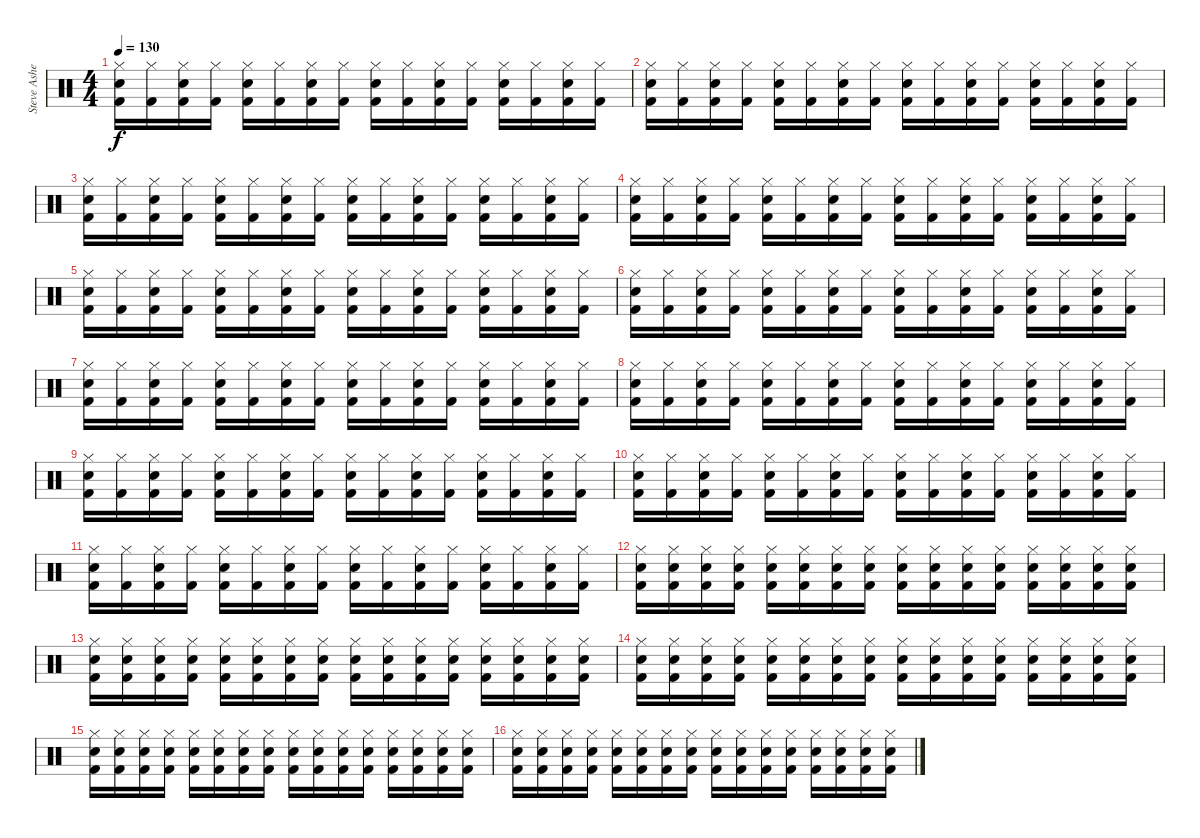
\track ("Steve Asheim" "Steve Ashe") {instrument percussion}
\staff {score}
\articulation defaults
\ts (4 4)
\tempo 130
\clef neutral
\ks c
("Kick (hit) 2" "Electric Snare (hit)" "Hi-Hat (closed)").16{dy f} ("Kick (hit) 2" "Hi-Hat (closed)").16 ("Kick (hit) 2" "Electric Snare (hit)" "Hi-Hat (closed)").16 ("Kick (hit) 2" "Hi-Hat (closed)").16 ("Kick (hit) 2" "Electric Snare (hit)" "Hi-Hat (closed)").16 ("Kick (hit) 2" "Hi-Hat (closed)").16 ("Kick (hit) 2" "Electric Snare (hit)" "Hi-Hat (closed)").16 ("Kick (hit) 2" "Hi-Hat (closed)").16 ("Kick (hit) 2" "Electric Snare (hit)" "Hi-Hat (closed)").16 ("Kick (hit) 2" "Hi-Hat (closed)").16 ("Kick (hit) 2" "Electric Snare (hit)" "Hi-Hat (closed)").16 ("Kick (hit) 2" "Hi-Hat (closed)").16 ("Kick (hit) 2" "Electric Snare (hit)" "Hi-Hat (closed)").16 ("Kick (hit) 2" "Hi-Hat (closed)").16 ("Kick (hit) 2" "Electric Snare (hit)" "Hi-Hat (closed)").16 ("Kick (hit) 2" "Hi-Hat (closed)").16 |
("Kick (hit) 2" "Electric Snare (hit)" "Hi-Hat (closed)").16 ("Kick (hit) 2" "Hi-Hat (closed)").16 ("Kick (hit) 2" "Electric Snare (hit)" "Hi-Hat (closed)").16 ("Kick (hit) 2" "Hi-Hat (closed)").16 ("Kick (hit) 2" "Electric Snare (hit)" "Hi-Hat (closed)").16 ("Kick (hit) 2" "Hi-Hat (closed)").16 ("Kick (hit) 2" "Electric Snare (hit)" "Hi-Hat (closed)").16 ("Kick (hit) 2" "Hi-Hat (closed)").16 ("Kick (hit) 2" "Electric Snare (hit)" "Hi-Hat (closed)").16 ("Kick (hit) 2" "Hi-Hat (closed)").16 ("Kick (hit) 2" "Electric Snare (hit)" "Hi-Hat (closed)").16 ("Kick (hit) 2" "Hi-Hat (closed)").16 ("Kick (hit) 2" "Electric Snare (hit)" "Hi-Hat (closed)").16 ("Kick (hit) 2" "Hi-Hat (closed)").16 ("Kick (hit) 2" "Electric Snare (hit)" "Hi-Hat (closed)").16 ("Kick (hit) 2" "Hi-Hat (closed)").16 |
("Kick (hit) 2" "Electric Snare (hit)" "Hi-Hat (closed)").16 ("Kick (hit) 2" "Hi-Hat (closed)").16 ("Kick (hit) 2" "Electric Snare (hit)" "Hi-Hat (closed)").16 ("Kick (hit) 2" "Hi-Hat (closed)").16 ("Kick (hit) 2" "Electric Snare (hit)" "Hi-Hat (closed)").16 ("Kick (hit) 2" "Hi-Hat (closed)").16 ("Kick (hit) 2" "Electric Snare (hit)" "Hi-Hat (closed)").16 ("Kick (hit) 2" "Hi-Hat (closed)").16 ("Kick (hit) 2" "Electric Snare (hit)" "Hi-Hat (closed)").16 ("Kick (hit) 2" "Hi-Hat (closed)").16 ("Kick (hit) 2" "Electric Snare (hit)" "Hi-Hat (closed)").16 ("Kick (hit) 2" "Hi-Hat (closed)").16 ("Kick (hit) 2" "Electric Snare (hit)" "Hi-Hat (closed)").16 ("Kick (hit) 2" "Hi-Hat (closed)").16 ("Kick (hit) 2" "Electric Snare (hit)" "Hi-Hat (closed)").16 ("Kick (hit) 2" "Hi-Hat (closed)").16 |
("Kick (hit) 2" "Electric Snare (hit)" "Hi-Hat (closed)").16 ("Kick (hit) 2" "Hi-Hat (closed)").16 ("Kick (hit) 2" "Electric Snare (hit)" "Hi-Hat (closed)").16 ("Kick (hit) 2" "Hi-Hat (closed)").16 ("Kick (hit) 2" "Electric Snare (hit)" "Hi-Hat (closed)").16 ("Kick (hit) 2" "Hi-Hat (closed)").16 ("Kick (hit) 2" "Electric Snare (hit)" "Hi-Hat (closed)").16 ("Kick (hit) 2" "Hi-Hat (closed)").16 ("Kick (hit) 2" "Electric Snare (hit)" "Hi-Hat (closed)").16 ("Kick (hit) 2" "Hi-Hat (closed)").16 ("Kick (hit) 2" "Electric Snare (hit)" "Hi-Hat (closed)").16 ("Kick (hit) 2" "Hi-Hat (closed)").16 ("Kick (hit) 2" "Electric Snare (hit)" "Hi-Hat (closed)").16 ("Kick (hit) 2" "Hi-Hat (closed)").16 ("Kick (hit) 2" "Electric Snare (hit)" "Hi-Hat (closed)").16 ("Kick (hit) 2" "Hi-Hat (closed)").16 |
("Kick (hit) 2" "Electric Snare (hit)" "Hi-Hat (closed)").16 ("Kick (hit) 2" "Hi-Hat (closed)").16 ("Kick (hit) 2" "Electric Snare (hit)" "Hi-Hat (closed)").16 ("Kick (hit) 2" "Hi-Hat (closed)").16 ("Kick (hit) 2" "Electric Snare (hit)" "Hi-Hat (closed)").16 ("Kick (hit) 2" "Hi-Hat (closed)").16 ("Kick (hit) 2" "Electric Snare (hit)" "Hi-Hat (closed)").16 ("Kick (hit) 2" "Hi-Hat (closed)").16 ("Kick (hit) 2" "Electric Snare (hit)" "Hi-Hat (closed)").16 ("Kick (hit) 2" "Hi-Hat (closed)").16 ("Kick (hit) 2" "Electric Snare (hit)" "Hi-Hat (closed)").16 ("Kick (hit) 2" "Hi-Hat (closed)").16 ("Kick (hit) 2" "Electric Snare (hit)" "Hi-Hat (closed)").16 ("Kick (hit) 2" "Hi-Hat (closed)").16 ("Kick (hit) 2" "Electric Snare (hit)" "Hi-Hat (closed)").16 ("Kick (hit) 2" "Hi-Hat (closed)").16 |
("Kick (hit) 2" "Electric Snare (hit)" "Hi-Hat (closed)").16 ("Kick (hit) 2" "Hi-Hat (closed)").16 ("Kick (hit) 2" "Electric Snare (hit)" "Hi-Hat (closed)").16 ("Kick (hit) 2" "Hi-Hat (closed)").16 ("Kick (hit) 2" "Electric Snare (hit)" "Hi-Hat (closed)").16 ("Kick (hit) 2" "Hi-Hat (closed)").16 ("Kick (hit) 2" "Electric Snare (hit)" "Hi-Hat (closed)").16 ("Kick (hit) 2" "Hi-Hat (closed)").16 ("Kick (hit) 2" "Electric Snare (hit)" "Hi-Hat (closed)").16 ("Kick (hit) 2" "Hi-Hat (closed)").16 ("Kick (hit) 2" "Electric Snare (hit)" "Hi-Hat (closed)").16 ("Kick (hit) 2" "Hi-Hat (closed)").16 ("Kick (hit) 2" "Electric Snare (hit)" "Hi-Hat (closed)").16 ("Kick (hit) 2" "Hi-Hat (closed)").16 ("Kick (hit) 2" "Electric Snare (hit)" "Hi-Hat (closed)").16 ("Kick (hit) 2" "Hi-Hat (closed)").16 |
("Kick (hit) 2" "Electric Snare (hit)" "Hi-Hat (closed)").16 ("Kick (hit) 2" "Hi-Hat (closed)").16 ("Kick (hit) 2" "Electric Snare (hit)" "Hi-Hat (closed)").16 ("Kick (hit) 2" "Hi-Hat (closed)").16 ("Kick (hit) 2" "Electric Snare (hit)" "Hi-Hat (closed)").16 ("Kick (hit) 2" "Hi-Hat (closed)").16 ("Kick (hit) 2" "Electric Snare (hit)" "Hi-Hat (closed)").16 ("Kick (hit) 2" "Hi-Hat (closed)").16 ("Kick (hit) 2" "Electric Snare (hit)" "Hi-Hat (closed)").16 ("Kick (hit) 2" "Hi-Hat (closed)").16 ("Kick (hit) 2" "Electric Snare (hit)" "Hi-Hat (closed)").16 ("Kick (hit) 2" "Hi-Hat (closed)").16 ("Kick (hit) 2" "Electric Snare (hit)" "Hi-Hat (closed)").16 ("Kick (hit) 2" "Hi-Hat (closed)").16 ("Kick (hit) 2" "Electric Snare (hit)" "Hi-Hat (closed)").16 ("Kick (hit) 2" "Hi-Hat (closed)").16 |
("Kick (hit) 2" "Electric Snare (hit)" "Hi-Hat (closed)").16 ("Kick (hit) 2" "Hi-Hat (closed)").16 ("Kick (hit) 2" "Electric Snare (hit)" "Hi-Hat (closed)").16 ("Kick (hit) 2" "Hi-Hat (closed)").16 ("Kick (hit) 2" "Electric Snare (hit)" "Hi-Hat (closed)").16 ("Kick (hit) 2" "Hi-Hat (closed)").16 ("Kick (hit) 2" "Electric Snare (hit)" "Hi-Hat (closed)").16 ("Kick (hit) 2" "Hi-Hat (closed)").16 ("Kick (hit) 2" "Electric Snare (hit)" "Hi-Hat (closed)").16 ("Kick (hit) 2" "Hi-Hat (closed)").16 ("Kick (hit) 2" "Electric Snare (hit)" "Hi-Hat (closed)").16 ("Kick (hit) 2" "Hi-Hat (closed)").16 ("Kick (hit) 2" "Electric Snare (hit)" "Hi-Hat (closed)").16 ("Kick (hit) 2" "Hi-Hat (closed)").16 ("Kick (hit) 2" "Electric Snare (hit)" "Hi-Hat (closed)").16 ("Kick (hit) 2" "Hi-Hat (closed)").16 |
("Kick (hit) 2" "Electric Snare (hit)" "Hi-Hat (closed)").16 ("Kick (hit) 2" "Hi-Hat (closed)").16 ("Kick (hit) 2" "Electric Snare (hit)" "Hi-Hat (closed)").16 ("Kick (hit) 2" "Hi-Hat (closed)").16 ("Kick (hit) 2" "Electric Snare (hit)" "Hi-Hat (closed)").16 ("Kick (hit) 2" "Hi-Hat (closed)").16 ("Kick (hit) 2" "Electric Snare (hit)" "Hi-Hat (closed)").16 ("Kick (hit) 2" "Hi-Hat (closed)").16 ("Kick (hit) 2" "Electric Snare (hit)" "Hi-Hat (closed)").16 ("Kick (hit) 2" "Hi-Hat (closed)").16 ("Kick (hit) 2" "Electric Snare (hit)" "Hi-Hat (closed)").16 ("Kick (hit) 2" "Hi-Hat (closed)").16 ("Kick (hit) 2" "Electric Snare (hit)" "Hi-Hat (closed)").16 ("Kick (hit) 2" "Hi-Hat (closed)").16 ("Kick (hit) 2" "Electric Snare (hit)" "Hi-Hat (closed)").16 ("Kick (hit) 2" "Hi-Hat (closed)").16 |
("Kick (hit) 2" "Electric Snare (hit)" "Hi-Hat (closed)").16 ("Kick (hit) 2" "Hi-Hat (closed)").16 ("Kick (hit) 2" "Electric Snare (hit)" "Hi-Hat (closed)").16 ("Kick (hit) 2" "Hi-Hat (closed)").16 ("Kick (hit) 2" "Electric Snare (hit)" "Hi-Hat (closed)").16 ("Kick (hit) 2" "Hi-Hat (closed)").16 ("Kick (hit) 2" "Electric Snare (hit)" "Hi-Hat (closed)").16 ("Kick (hit) 2" "Hi-Hat (closed)").16 ("Kick (hit) 2" "Electric Snare (hit)" "Hi-Hat (closed)").16 ("Kick (hit) 2" "Hi-Hat (closed)").16 ("Kick (hit) 2" "Electric Snare (hit)" "Hi-Hat (closed)").16 ("Kick (hit) 2" "Hi-Hat (closed)").16 ("Kick (hit) 2" "Electric Snare (hit)" "Hi-Hat (closed)").16 ("Kick (hit) 2" "Hi-Hat (closed)").16 ("Kick (hit) 2" "Electric Snare (hit)" "Hi-Hat (closed)").16 ("Kick (hit) 2" "Hi-Hat (closed)").16 |
("Kick (hit) 2" "Electric Snare (hit)" "Hi-Hat (closed)").16 ("Kick (hit) 2" "Hi-Hat (closed)").16 ("Kick (hit) 2" "Electric Snare (hit)" "Hi-Hat (closed)").16 ("Kick (hit) 2" "Hi-Hat (closed)").16 ("Kick (hit) 2" "Electric Snare (hit)" "Hi-Hat (closed)").16 ("Kick (hit) 2" "Hi-Hat (closed)").16 ("Kick (hit) 2" "Electric Snare (hit)" "Hi-Hat (closed)").16 ("Kick (hit) 2" "Hi-Hat (closed)").16 ("Kick (hit) 2" "Electric Snare (hit)" "Hi-Hat (closed)").16 ("Kick (hit) 2" "Hi-Hat (closed)").16 ("Kick (hit) 2" "Electric Snare (hit)" "Hi-Hat (closed)").16 ("Kick (hit) 2" "Hi-Hat (closed)").16 ("Kick (hit) 2" "Electric Snare (hit)" "Hi-Hat (closed)").16 ("Kick (hit) 2" "Hi-Hat (closed)").16 ("Kick (hit) 2" "Electric Snare (hit)" "Hi-Hat (closed)").16 ("Kick (hit) 2" "Hi-Hat (closed)").16 |
("Kick (hit) 2" "Electric Snare (hit)" "Hi-Hat (closed)").16 ("Kick (hit) 2" "Electric Snare (hit)" "Hi-Hat (closed)").16 ("Kick (hit) 2" "Electric Snare (hit)" "Hi-Hat (closed)").16 ("Kick (hit) 2" "Electric Snare (hit)" "Hi-Hat (closed)").16 ("Kick (hit) 2" "Electric Snare (hit)" "Hi-Hat (closed)").16 ("Kick (hit) 2" "Electric Snare (hit)" "Hi-Hat (closed)").16 ("Kick (hit) 2" "Electric Snare (hit)" "Hi-Hat (closed)").16 ("Kick (hit) 2" "Electric Snare (hit)" "Hi-Hat (closed)").16 ("Kick (hit) 2" "Electric Snare (hit)" "Hi-Hat (closed)").16 ("Kick (hit) 2" "Electric Snare (hit)" "Hi-Hat (closed)").16 ("Kick (hit) 2" "Electric Snare (hit)" "Hi-Hat (closed)").16 ("Kick (hit) 2" "Electric Snare (hit)" "Hi-Hat (closed)").16 ("Kick (hit) 2" "Electric Snare (hit)" "Hi-Hat (closed)").16 ("Kick (hit) 2" "Electric Snare (hit)" "Hi-Hat (closed)").16 ("Kick (hit) 2" "Electric Snare (hit)" "Hi-Hat (closed)").16 ("Kick (hit) 2" "Electric Snare (hit)" "Hi-Hat (closed)").16 |
("Kick (hit) 2" "Electric Snare (hit)" "Hi-Hat (closed)").16 ("Kick (hit) 2" "Electric Snare (hit)" "Hi-Hat (closed)").16 ("Kick (hit) 2" "Electric Snare (hit)" "Hi-Hat (closed)").16 ("Kick (hit) 2" "Electric Snare (hit)" "Hi-Hat (closed)").16 ("Kick (hit) 2" "Electric Snare (hit)" "Hi-Hat (closed)").16 ("Kick (hit) 2" "Electric Snare (hit)" "Hi-Hat (closed)").16 ("Kick (hit) 2" "Electric Snare (hit)" "Hi-Hat (closed)").16 ("Kick (hit) 2" "Electric Snare (hit)" "Hi-Hat (closed)").16 ("Kick (hit) 2" "Electric Snare (hit)" "Hi-Hat (closed)").16 ("Kick (hit) 2" "Electric Snare (hit)" "Hi-Hat (closed)").16 ("Kick (hit) 2" "Electric Snare (hit)" "Hi-Hat (closed)").16 ("Kick (hit) 2" "Electric Snare (hit)" "Hi-Hat (closed)").16 ("Kick (hit) 2" "Electric Snare (hit)" "Hi-Hat (closed)").16 ("Kick (hit) 2" "Electric Snare (hit)" "Hi-Hat (closed)").16 ("Kick (hit) 2" "Electric Snare (hit)" "Hi-Hat (closed)").16 ("Kick (hit) 2" "Electric Snare (hit)" "Hi-Hat (closed)").16 |
("Kick (hit) 2" "Electric Snare (hit)" "Hi-Hat (closed)").16 ("Kick (hit) 2" "Electric Snare (hit)" "Hi-Hat (closed)").16 ("Kick (hit) 2" "Electric Snare (hit)" "Hi-Hat (closed)").16 ("Kick (hit) 2" "Electric Snare (hit)" "Hi-Hat (closed)").16 ("Kick (hit) 2" "Electric Snare (hit)" "Hi-Hat (closed)").16 ("Kick (hit) 2" "Electric Snare (hit)" "Hi-Hat (closed)").16 ("Kick (hit) 2" "Electric Snare (hit)" "Hi-Hat (closed)").16 ("Kick (hit) 2" "Electric Snare (hit)" "Hi-Hat (closed)").16 ("Kick (hit) 2" "Electric Snare (hit)" "Hi-Hat (closed)").16 ("Kick (hit) 2" "Electric Snare (hit)" "Hi-Hat (closed)").16 ("Kick (hit) 2" "Electric Snare (hit)" "Hi-Hat (closed)").16 ("Kick (hit) 2" "Electric Snare (hit)" "Hi-Hat (closed)").16 ("Kick (hit) 2" "Electric Snare (hit)" "Hi-Hat (closed)").16 ("Kick (hit) 2" "Electric Snare (hit)" "Hi-Hat (closed)").16 ("Kick (hit) 2" "Electric Snare (hit)" "Hi-Hat (closed)").16 ("Kick (hit) 2" "Electric Snare (hit)" "Hi-Hat (closed)").16 |
("Kick (hit) 2" "Electric Snare (hit)" "Hi-Hat (closed)").16 ("Kick (hit) 2" "Electric Snare (hit)" "Hi-Hat (closed)").16 ("Kick (hit) 2" "Electric Snare (hit)" "Hi-Hat (closed)").16 ("Kick (hit) 2" "Electric Snare (hit)" "Hi-Hat (closed)").16 ("Kick (hit) 2" "Electric Snare (hit)" "Hi-Hat (closed)").16 ("Kick (hit) 2" "Electric Snare (hit)" "Hi-Hat (closed)").16 ("Kick (hit) 2" "Electric Snare (hit)" "Hi-Hat (closed)").16 ("Kick (hit) 2" "Electric Snare (hit)" "Hi-Hat (closed)").16 ("Kick (hit) 2" "Electric Snare (hit)" "Hi-Hat (closed)").16 ("Kick (hit) 2" "Electric Snare (hit)" "Hi-Hat (closed)").16 ("Kick (hit) 2" "Electric Snare (hit)" "Hi-Hat (closed)").16 ("Kick (hit) 2" "Electric Snare (hit)" "Hi-Hat (closed)").16 ("Kick (hit) 2" "Electric Snare (hit)" "Hi-Hat (closed)").16 ("Kick (hit) 2" "Electric Snare (hit)" "Hi-Hat (closed)").16 ("Kick (hit) 2" "Electric Snare (hit)" "Hi-Hat (closed)").16 ("Kick (hit) 2" "Electric Snare (hit)" "Hi-Hat (closed)").16 |
("Kick (hit) 2" "Electric Snare (hit)" "Hi-Hat (closed)").16 ("Kick (hit) 2" "Electric Snare (hit)" "Hi-Hat (closed)").16 ("Kick (hit) 2" "Electric Snare (hit)" "Hi-Hat (closed)").16 ("Kick (hit) 2" "Electric Snare (hit)" "Hi-Hat (closed)").16 ("Kick (hit) 2" "Electric Snare (hit)" "Hi-Hat (closed)").16 ("Kick (hit) 2" "Electric Snare (hit)" "Hi-Hat (closed)").16 ("Kick (hit) 2" "Electric Snare (hit)" "Hi-Hat (closed)").16 ("Kick (hit) 2" "Electric Snare (hit)" "Hi-Hat (closed)").16 ("Kick (hit) 2" "Electric Snare (hit)" "Hi-Hat (closed)").16 ("Kick (hit) 2" "Electric Snare (hit)" "Hi-Hat (closed)").16 ("Kick (hit) 2" "Electric Snare (hit)" "Hi-Hat (closed)").16 ("Kick (hit) 2" "Electric Snare (hit)" "Hi-Hat (closed)").16 ("Kick (hit) 2" "Electric Snare (hit)" "Hi-Hat (closed)").16 ("Kick (hit) 2" "Electric Snare (hit)" "Hi-Hat (closed)").16 ("Kick (hit) 2" "Electric Snare (hit)" "Hi-Hat (closed)").16 ("Kick (hit) 2" "Electric Snare (hit)" "Hi-Hat (closed)").16
